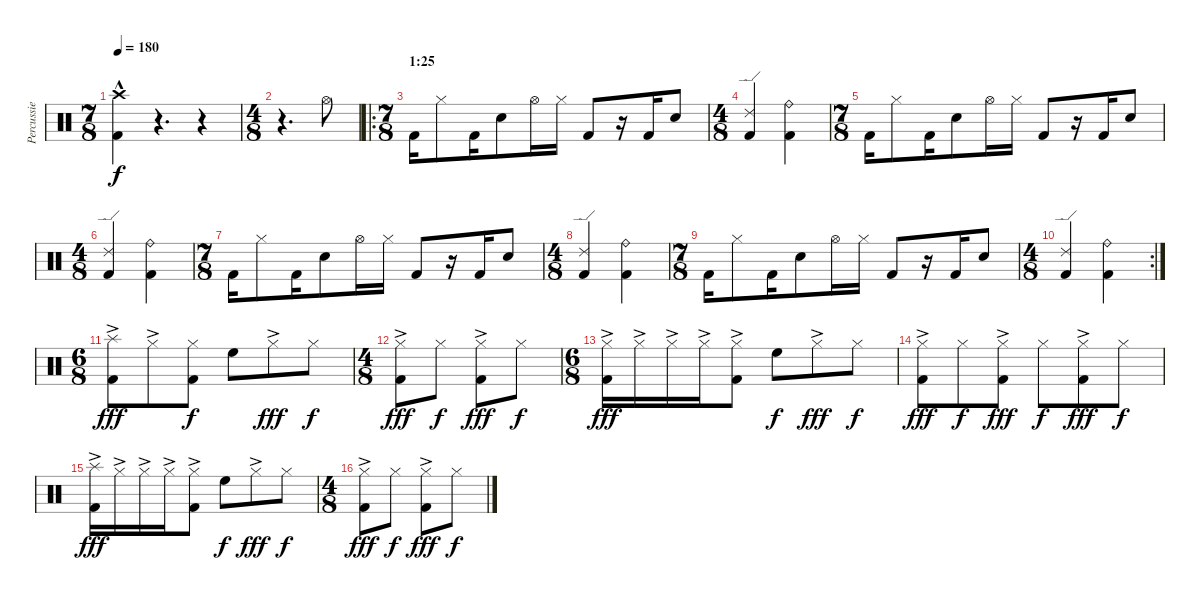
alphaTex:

\track ("Percussie" "Percussie") {instrument percussion}
\staff {score}
\articulation defaults
\ts (7 8)
\tempo 180
\clef neutral
\ks c
("Crash high (hit)"{hac} "Kick (hit) 2"{hac}).4{dy f} r.4{d} r.4 |
\ts (4 8)
r.4{d} "Hi-Hat (open)".8 |
\ro
\ts (7 8)
\section ("" "1:25")
"Kick (hit) 2".16 "Hi-Hat (closed)".8 "Kick (hit) 2".16 "Snare (hit) 2".8 "Hi-Hat (open)".16 "Hi-Hat (closed)".16 "Kick (hit) 2".8 r.16 "Kick (hit) 2".16 "Snare (hit) 2".8 |
\ts (4 8)
("Ride (edge) 2" "Kick (hit) 2").4 ("Ride (bell)" "Kick (hit) 2").4 |
\ts (7 8)
"Kick (hit) 2".16 "Hi-Hat (closed)".8 "Kick (hit) 2".16 "Snare (hit) 2".8 "Hi-Hat (open)".16 "Hi-Hat (closed)".16 "Kick (hit) 2".8 r.16 "Kick (hit) 2".16 "Snare (hit) 2".8 |
\ts (4 8)
("Ride (edge) 2" "Kick (hit) 2").4 ("Ride (bell)" "Kick (hit) 2").4 |
\ts (7 8)
"Kick (hit) 2".16 "Hi-Hat (closed)".8 "Kick (hit) 2".16 "Snare (hit) 2".8 "Hi-Hat (open)".16 "Hi-Hat (closed)".16 "Kick (hit) 2".8 r.16 "Kick (hit) 2".16 "Snare (hit) 2".8 |
\ts (4 8)
("Ride (edge) 2" "Kick (hit) 2").4 ("Ride (bell)" "Kick (hit) 2").4 |
\ts (7 8)
"Kick (hit) 2".16 "Hi-Hat (closed)".8 "Kick (hit) 2".16 "Snare (hit) 2".8 "Hi-Hat (open)".16 "Hi-Hat (closed)".16 "Kick (hit) 2".8 r.16 "Kick (hit) 2".16 "Snare (hit) 2".8 |
\rc 2
\ts (4 8)
("Ride (edge) 2" "Kick (hit) 2").4 ("Ride (bell)" "Kick (hit) 2").4 |
\ts (6 8)
("Splash (hit)"{ac} "Kick (hit) 2").8{dy fff} "Hi-Hat (closed)"{ac}.8 ("Hi-Hat (closed)" "Kick (hit) 2").8{dy f} "High Floor Tom (hit)".8 "Hi-Hat (closed)"{ac}.8{dy fff} "Hi-Hat (closed)".8{dy f} |
\ts (4 8)
("Hi-Hat (closed)"{ac} "Kick (hit) 2").8{dy fff} "Hi-Hat (closed)".8{dy f} ("Hi-Hat (closed)"{ac} "Kick (hit) 2").8{dy fff} "Hi-Hat (closed)".8{dy f} |
\ts (6 8)
("Hi-Hat (closed)"{ac} "Kick (hit) 2").16{dy fff} "Hi-Hat (closed)"{ac}.16 "Hi-Hat (closed)"{ac}.16 "Hi-Hat (closed)"{ac}.16 ("Hi-Hat (closed)"{ac} "Kick (hit) 2").8 "High Floor Tom (hit)".8{dy f} "Hi-Hat (closed)"{ac}.8{dy fff} "Hi-Hat (closed)".8{dy f} |
("Hi-Hat (closed)"{ac} "Kick (hit) 2").8{dy fff} "Hi-Hat (closed)".8{dy f} ("Hi-Hat (closed)"{ac} "Kick (hit) 2").8{dy fff} "Hi-Hat (closed)".8{dy f} ("Hi-Hat (closed)"{ac} "Kick (hit) 2").8{dy fff} "Hi-Hat (closed)".8{dy f} |
("Splash (hit)"{ac} "Kick (hit) 2").16{dy fff} "Hi-Hat (closed)"{ac}.16 "Hi-Hat (closed)"{ac}.16 "Hi-Hat (closed)"{ac}.16 ("Hi-Hat (closed)"{ac} "Kick (hit) 2").8 "High Floor Tom (hit)".8{dy f} "Hi-Hat (closed)"{ac}.8{dy fff} "Hi-Hat (closed)".8{dy f} |
\ts (4 8)
("Hi-Hat (closed)"{ac} "Kick (hit) 2").8{dy fff} "Hi-Hat (closed)".8{dy f} ("Hi-Hat (closed)"{ac} "Kick (hit) 2").8{dy fff} "Hi-Hat (closed)".8{dy f}
